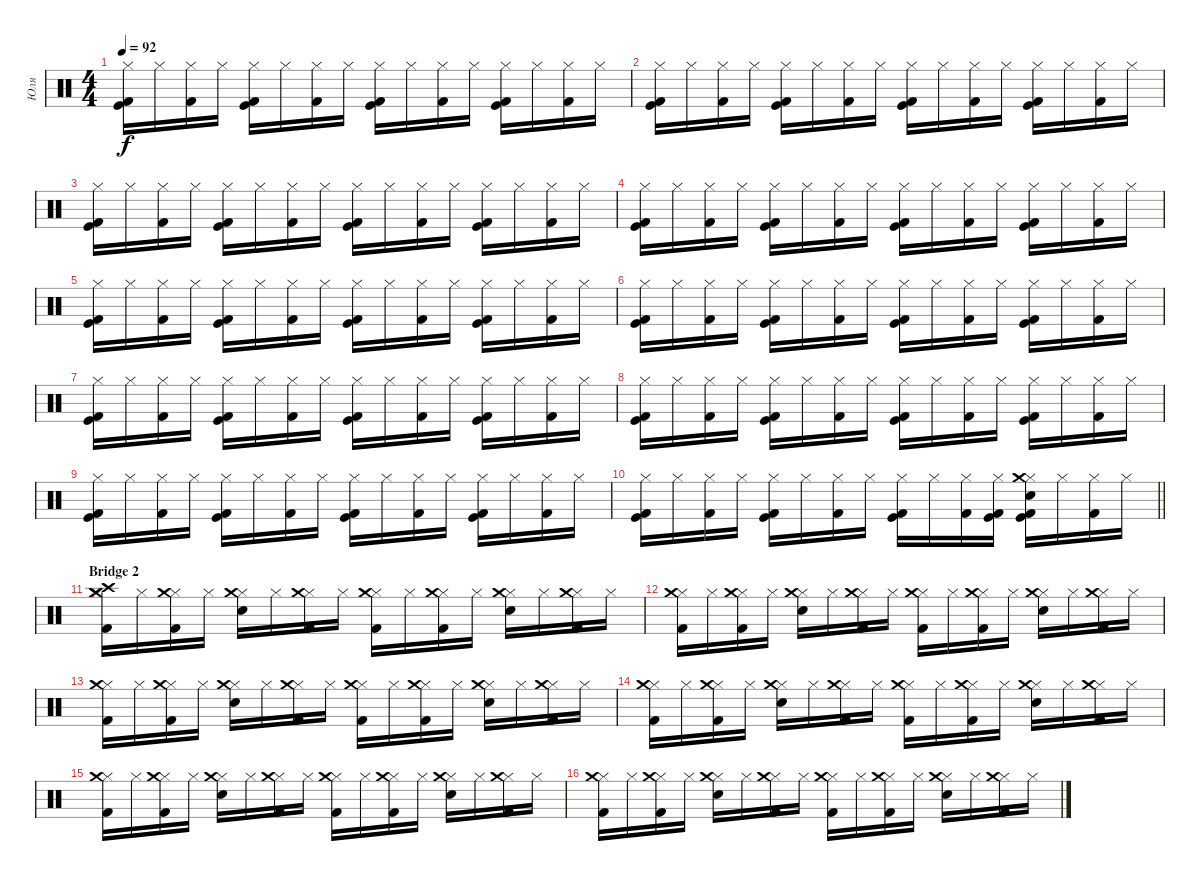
\track ("Юля" "Юля") {instrument percussion}
\staff {score}
\articulation defaults
\ts (4 4)
\tempo 92
\clef neutral
\ks c
("Hi-Hat (closed)" "Kick (hit)" "Kick (hit) 2").16{dy f} "Hi-Hat (closed)".16 ("Hi-Hat (closed)" "Kick (hit) 2").16 "Hi-Hat (closed)".16 ("Hi-Hat (closed)" "Kick (hit)" "Kick (hit) 2").16 "Hi-Hat (closed)".16 ("Hi-Hat (closed)" "Kick (hit) 2").16 "Hi-Hat (closed)".16 ("Hi-Hat (closed)" "Kick (hit)" "Kick (hit) 2").16 "Hi-Hat (closed)".16 ("Hi-Hat (closed)" "Kick (hit) 2").16 "Hi-Hat (closed)".16 ("Hi-Hat (closed)" "Kick (hit)" "Kick (hit) 2").16 "Hi-Hat (closed)".16 ("Hi-Hat (closed)" "Kick (hit) 2").16 "Hi-Hat (closed)".16 |
("Hi-Hat (closed)" "Kick (hit)" "Kick (hit) 2").16 "Hi-Hat (closed)".16 ("Hi-Hat (closed)" "Kick (hit) 2").16 "Hi-Hat (closed)".16 ("Hi-Hat (closed)" "Kick (hit)" "Kick (hit) 2").16 "Hi-Hat (closed)".16 ("Hi-Hat (closed)" "Kick (hit) 2").16 "Hi-Hat (closed)".16 ("Hi-Hat (closed)" "Kick (hit)" "Kick (hit) 2").16 "Hi-Hat (closed)".16 ("Hi-Hat (closed)" "Kick (hit) 2").16 "Hi-Hat (closed)".16 ("Hi-Hat (closed)" "Kick (hit)" "Kick (hit) 2").16 "Hi-Hat (closed)".16 ("Hi-Hat (closed)" "Kick (hit) 2").16 "Hi-Hat (closed)".16 |
("Hi-Hat (closed)" "Kick (hit)" "Kick (hit) 2").16 "Hi-Hat (closed)".16 ("Hi-Hat (closed)" "Kick (hit) 2").16 "Hi-Hat (closed)".16 ("Hi-Hat (closed)" "Kick (hit)" "Kick (hit) 2").16 "Hi-Hat (closed)".16 ("Hi-Hat (closed)" "Kick (hit) 2").16 "Hi-Hat (closed)".16 ("Hi-Hat (closed)" "Kick (hit)" "Kick (hit) 2").16 "Hi-Hat (closed)".16 ("Hi-Hat (closed)" "Kick (hit) 2").16 "Hi-Hat (closed)".16 ("Hi-Hat (closed)" "Kick (hit)" "Kick (hit) 2").16 "Hi-Hat (closed)".16 ("Hi-Hat (closed)" "Kick (hit) 2").16 "Hi-Hat (closed)".16 |
("Hi-Hat (closed)" "Kick (hit)" "Kick (hit) 2").16 "Hi-Hat (closed)".16 ("Hi-Hat (closed)" "Kick (hit) 2").16 "Hi-Hat (closed)".16 ("Hi-Hat (closed)" "Kick (hit)" "Kick (hit) 2").16 "Hi-Hat (closed)".16 ("Hi-Hat (closed)" "Kick (hit) 2").16 "Hi-Hat (closed)".16 ("Hi-Hat (closed)" "Kick (hit)" "Kick (hit) 2").16 "Hi-Hat (closed)".16 ("Hi-Hat (closed)" "Kick (hit) 2").16 "Hi-Hat (closed)".16 ("Hi-Hat (closed)" "Kick (hit)" "Kick (hit) 2").16 "Hi-Hat (closed)".16 ("Hi-Hat (closed)" "Kick (hit) 2").16 "Hi-Hat (closed)".16 |
("Hi-Hat (closed)" "Kick (hit)" "Kick (hit) 2").16 "Hi-Hat (closed)".16 ("Hi-Hat (closed)" "Kick (hit) 2").16 "Hi-Hat (closed)".16 ("Hi-Hat (closed)" "Kick (hit)" "Kick (hit) 2").16 "Hi-Hat (closed)".16 ("Hi-Hat (closed)" "Kick (hit) 2").16 "Hi-Hat (closed)".16 ("Hi-Hat (closed)" "Kick (hit)" "Kick (hit) 2").16 "Hi-Hat (closed)".16 ("Hi-Hat (closed)" "Kick (hit) 2").16 "Hi-Hat (closed)".16 ("Hi-Hat (closed)" "Kick (hit)" "Kick (hit) 2").16 "Hi-Hat (closed)".16 ("Hi-Hat (closed)" "Kick (hit) 2").16 "Hi-Hat (closed)".16 |
("Hi-Hat (closed)" "Kick (hit)" "Kick (hit) 2").16 "Hi-Hat (closed)".16 ("Hi-Hat (closed)" "Kick (hit) 2").16 "Hi-Hat (closed)".16 ("Hi-Hat (closed)" "Kick (hit)" "Kick (hit) 2").16 "Hi-Hat (closed)".16 ("Hi-Hat (closed)" "Kick (hit) 2").16 "Hi-Hat (closed)".16 ("Hi-Hat (closed)" "Kick (hit)" "Kick (hit) 2").16 "Hi-Hat (closed)".16 ("Hi-Hat (closed)" "Kick (hit) 2").16 "Hi-Hat (closed)".16 ("Hi-Hat (closed)" "Kick (hit)" "Kick (hit) 2").16 "Hi-Hat (closed)".16 ("Hi-Hat (closed)" "Kick (hit) 2").16 "Hi-Hat (closed)".16 |
("Hi-Hat (closed)" "Kick (hit)" "Kick (hit) 2").16 "Hi-Hat (closed)".16 ("Hi-Hat (closed)" "Kick (hit) 2").16 "Hi-Hat (closed)".16 ("Hi-Hat (closed)" "Kick (hit)" "Kick (hit) 2").16 "Hi-Hat (closed)".16 ("Hi-Hat (closed)" "Kick (hit) 2").16 "Hi-Hat (closed)".16 ("Hi-Hat (closed)" "Kick (hit)" "Kick (hit) 2").16 "Hi-Hat (closed)".16 ("Hi-Hat (closed)" "Kick (hit) 2").16 "Hi-Hat (closed)".16 ("Hi-Hat (closed)" "Kick (hit)" "Kick (hit) 2").16 "Hi-Hat (closed)".16 ("Hi-Hat (closed)" "Kick (hit) 2").16 "Hi-Hat (closed)".16 |
("Hi-Hat (closed)" "Kick (hit)" "Kick (hit) 2").16 "Hi-Hat (closed)".16 ("Hi-Hat (closed)" "Kick (hit) 2").16 "Hi-Hat (closed)".16 ("Hi-Hat (closed)" "Kick (hit)" "Kick (hit) 2").16 "Hi-Hat (closed)".16 ("Hi-Hat (closed)" "Kick (hit) 2").16 "Hi-Hat (closed)".16 ("Hi-Hat (closed)" "Kick (hit)" "Kick (hit) 2").16 "Hi-Hat (closed)".16 ("Hi-Hat (closed)" "Kick (hit) 2").16 "Hi-Hat (closed)".16 ("Hi-Hat (closed)" "Kick (hit)" "Kick (hit) 2").16 "Hi-Hat (closed)".16 ("Hi-Hat (closed)" "Kick (hit) 2").16 "Hi-Hat (closed)".16 |
("Hi-Hat (closed)" "Kick (hit)" "Kick (hit) 2").16 "Hi-Hat (closed)".16 ("Hi-Hat (closed)" "Kick (hit) 2").16 "Hi-Hat (closed)".16 ("Hi-Hat (closed)" "Kick (hit)" "Kick (hit) 2").16 "Hi-Hat (closed)".16 ("Hi-Hat (closed)" "Kick (hit) 2").16 "Hi-Hat (closed)".16 ("Hi-Hat (closed)" "Kick (hit)" "Kick (hit) 2").16 "Hi-Hat (closed)".16 ("Hi-Hat (closed)" "Kick (hit) 2").16 "Hi-Hat (closed)".16 ("Hi-Hat (closed)" "Kick (hit)" "Kick (hit) 2").16 "Hi-Hat (closed)".16 ("Hi-Hat (closed)" "Kick (hit) 2").16 "Hi-Hat (closed)".16 |
\barLineRight lightlight
("Hi-Hat (closed)" "Kick (hit)" "Kick (hit) 2").16 "Hi-Hat (closed)".16 ("Hi-Hat (closed)" "Kick (hit) 2").16 "Hi-Hat (closed)".16 ("Hi-Hat (closed)" "Kick (hit)" "Kick (hit) 2").16 "Hi-Hat (closed)".16 ("Hi-Hat (closed)" "Kick (hit) 2").16 "Hi-Hat (closed)".16 ("Hi-Hat (closed)" "Kick (hit)" "Kick (hit) 2").16 "Hi-Hat (closed)".16 ("Hi-Hat (closed)" "Kick (hit) 2").16 ("Hi-Hat (closed)" "Kick (hit)" "Kick (hit) 2").16 ("Hi-Hat (closed)" "Crash medium (hit)" "Snare (hit) 2" "Kick (hit)" "Kick (hit) 2").16 "Hi-Hat (closed)".16 ("Hi-Hat (closed)" "Kick (hit) 2").16 "Hi-Hat (closed)".16 |
\section ("" "Bridge 2")
("Hi-Hat (closed)" "Crash medium (hit)" "Crash high (hit)" "Kick (hit) 2").16 "Hi-Hat (closed)".16 ("Hi-Hat (closed)" "Crash medium (hit)" "Kick (hit) 2").16 "Hi-Hat (closed)".16 ("Hi-Hat (closed)" "Crash medium (hit)" "Snare (hit) 2").16 "Hi-Hat (closed)".16 ("Hi-Hat (closed)" "Crash medium (hit)" "Kick (hit) 2").16 "Hi-Hat (closed)".16 ("Hi-Hat (closed)" "Crash medium (hit)" "Kick (hit) 2").16 "Hi-Hat (closed)".16 ("Hi-Hat (closed)" "Crash medium (hit)" "Kick (hit) 2").16 "Hi-Hat (closed)".16 ("Hi-Hat (closed)" "Crash medium (hit)" "Snare (hit) 2").16 "Hi-Hat (closed)".16 ("Hi-Hat (closed)" "Crash medium (hit)" "Kick (hit) 2").16 "Hi-Hat (closed)".16 |
("Hi-Hat (closed)" "Crash medium (hit)" "Kick (hit) 2").16 "Hi-Hat (closed)".16 ("Hi-Hat (closed)" "Crash medium (hit)" "Kick (hit) 2").16 "Hi-Hat (closed)".16 ("Hi-Hat (closed)" "Crash medium (hit)" "Snare (hit) 2").16 "Hi-Hat (closed)".16 ("Hi-Hat (closed)" "Crash medium (hit)" "Kick (hit) 2").16 "Hi-Hat (closed)".16 ("Hi-Hat (closed)" "Crash medium (hit)" "Kick (hit) 2").16 "Hi-Hat (closed)".16 ("Hi-Hat (closed)" "Crash medium (hit)" "Kick (hit) 2").16 "Hi-Hat (closed)".16 ("Hi-Hat (closed)" "Crash medium (hit)" "Snare (hit) 2").16 "Hi-Hat (closed)".16 ("Hi-Hat (closed)" "Crash medium (hit)" "Kick (hit) 2").16 "Hi-Hat (closed)".16 |
("Hi-Hat (closed)" "Crash medium (hit)" "Kick (hit) 2").16 "Hi-Hat (closed)".16 ("Hi-Hat (closed)" "Crash medium (hit)" "Kick (hit) 2").16 "Hi-Hat (closed)".16 ("Hi-Hat (closed)" "Crash medium (hit)" "Snare (hit) 2").16 "Hi-Hat (closed)".16 ("Hi-Hat (closed)" "Crash medium (hit)" "Kick (hit) 2").16 "Hi-Hat (closed)".16 ("Hi-Hat (closed)" "Crash medium (hit)" "Kick (hit) 2").16 "Hi-Hat (closed)".16 ("Hi-Hat (closed)" "Crash medium (hit)" "Kick (hit) 2").16 "Hi-Hat (closed)".16 ("Hi-Hat (closed)" "Crash medium (hit)" "Snare (hit) 2").16 "Hi-Hat (closed)".16 ("Hi-Hat (closed)" "Crash medium (hit)" "Kick (hit) 2").16 "Hi-Hat (closed)".16 |
("Hi-Hat (closed)" "Crash medium (hit)" "Kick (hit) 2").16 "Hi-Hat (closed)".16 ("Hi-Hat (closed)" "Crash medium (hit)" "Kick (hit) 2").16 "Hi-Hat (closed)".16 ("Hi-Hat (closed)" "Crash medium (hit)" "Snare (hit) 2").16 "Hi-Hat (closed)".16 ("Hi-Hat (closed)" "Crash medium (hit)" "Kick (hit) 2").16 "Hi-Hat (closed)".16 ("Hi-Hat (closed)" "Crash medium (hit)" "Kick (hit) 2").16 "Hi-Hat (closed)".16 ("Hi-Hat (closed)" "Crash medium (hit)" "Kick (hit) 2").16 "Hi-Hat (closed)".16 ("Hi-Hat (closed)" "Crash medium (hit)" "Snare (hit) 2").16 "Hi-Hat (closed)".16 ("Hi-Hat (closed)" "Crash medium (hit)" "Kick (hit) 2").16 "Hi-Hat (closed)".16 |
("Hi-Hat (closed)" "Crash medium (hit)" "Kick (hit) 2").16 "Hi-Hat (closed)".16 ("Hi-Hat (closed)" "Crash medium (hit)" "Kick (hit) 2").16 "Hi-Hat (closed)".16 ("Hi-Hat (closed)" "Crash medium (hit)" "Snare (hit) 2").16 "Hi-Hat (closed)".16 ("Hi-Hat (closed)" "Crash medium (hit)" "Kick (hit) 2").16 "Hi-Hat (closed)".16 ("Hi-Hat (closed)" "Crash medium (hit)" "Kick (hit) 2").16 "Hi-Hat (closed)".16 ("Hi-Hat (closed)" "Crash medium (hit)" "Kick (hit) 2").16 "Hi-Hat (closed)".16 ("Hi-Hat (closed)" "Crash medium (hit)" "Snare (hit) 2").16 "Hi-Hat (closed)".16 ("Hi-Hat (closed)" "Crash medium (hit)" "Kick (hit) 2").16 "Hi-Hat (closed)".16 |
("Hi-Hat (closed)" "Crash medium (hit)" "Kick (hit) 2").16 "Hi-Hat (closed)".16 ("Hi-Hat (closed)" "Crash medium (hit)" "Kick (hit) 2").16 "Hi-Hat (closed)".16 ("Hi-Hat (closed)" "Crash medium (hit)" "Snare (hit) 2").16 "Hi-Hat (closed)".16 ("Hi-Hat (closed)" "Crash medium (hit)" "Kick (hit) 2").16 "Hi-Hat (closed)".16 ("Hi-Hat (closed)" "Crash medium (hit)" "Kick (hit) 2").16 "Hi-Hat (closed)".16 ("Hi-Hat (closed)" "Crash medium (hit)" "Kick (hit) 2").16 "Hi-Hat (closed)".16 ("Hi-Hat (closed)" "Crash medium (hit)" "Snare (hit) 2").16 "Hi-Hat (closed)".16 ("Hi-Hat (closed)" "Crash medium (hit)" "Kick (hit) 2").16 "Hi-Hat (closed)".16
